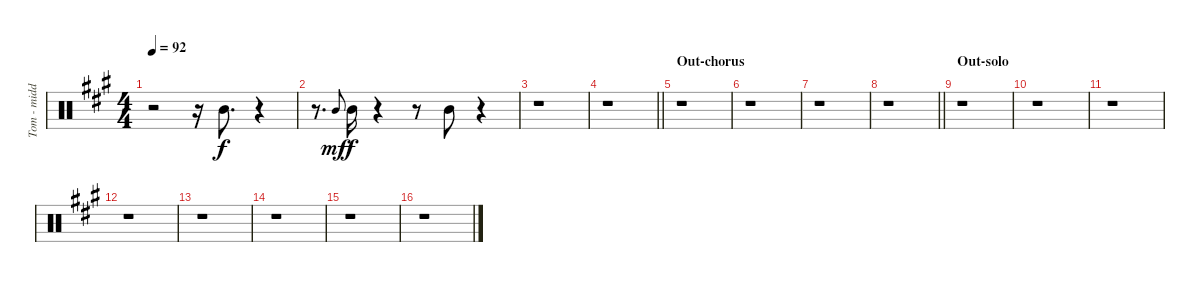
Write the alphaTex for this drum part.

\track ("Tom - middle" "Tom - midd") {instrument percussion}
\staff {score}
\articulation defaults
\ts (4 4)
\tempo 92
\clef neutral
\ks f#minor
r.2{dy f} r.16 "Mid Tom (hit)".8{d} r.4 |
r.8{d} "Mid Tom (hit)".8{gr onbeat dy mf} "Mid Tom (hit)".16{dy f} r.4 r.8 "Mid Tom (hit)".8 r.4 |
r.1 |
\barLineRight lightlight
r.1 |
\section ("" "Out-chorus")
r.1 |
r.1 |
r.1 |
\barLineRight lightlight
r.1 |
\section ("" "Out-solo")
r.1 |
r.1 |
r.1 |
r.1 |
r.1 |
r.1 |
r.1 |
r.1
